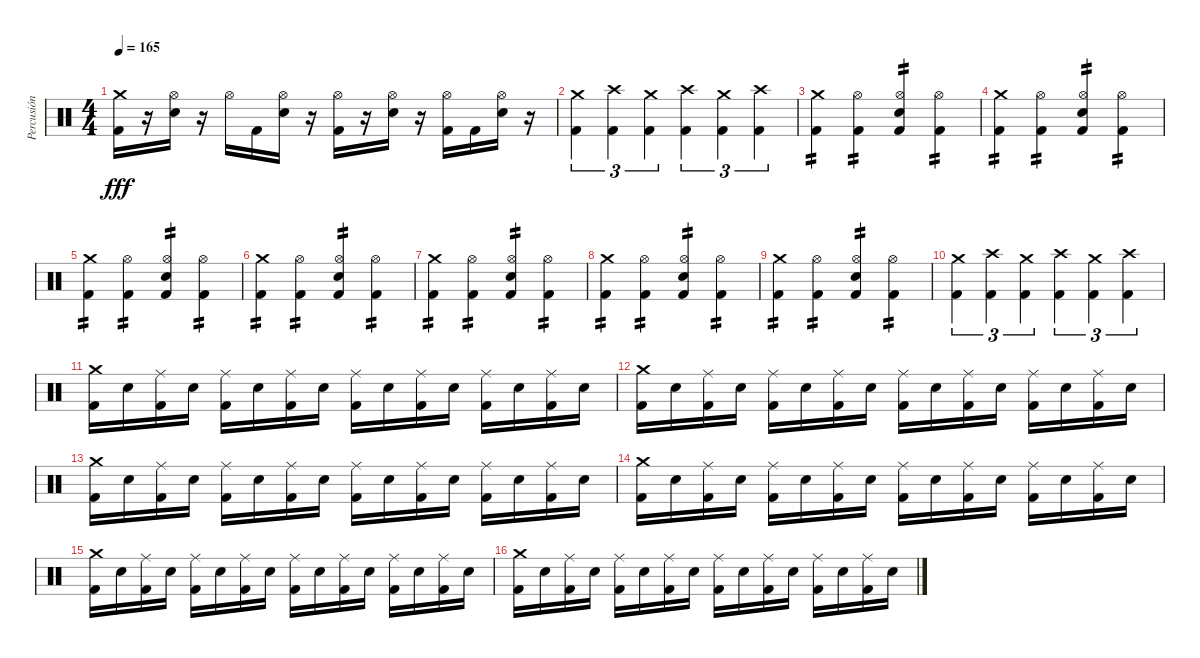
\track ("Percusión" "Percusión") {instrument percussion}
\staff {score}
\articulation defaults
\ts (4 4)
\tempo 165
\clef neutral
\ks c
("Crash medium (hit)" "Kick (hit) 2").16{dy fff} r.16 ("Hi-Hat (open)" "Electric Snare (hit)").16 r.16 "Hi-Hat (open)".16 "Kick (hit) 2".16 ("Hi-Hat (open)" "Electric Snare (hit)").16 r.16 ("Hi-Hat (open)" "Kick (hit) 2").16 r.16 ("Hi-Hat (open)" "Electric Snare (hit)").16 r.16 ("Hi-Hat (open)" "Kick (hit) 2").16 "Kick (hit) 2".16 ("Hi-Hat (open)" "Electric Snare (hit)").16 r.16 |
("Crash medium (hit)" "Kick (hit) 2").4{tu (3 2)} ("Crash high (hit)" "Kick (hit) 2").4{tu (3 2)} ("Crash medium (hit)" "Kick (hit) 2").4{tu (3 2)} ("Crash high (hit)" "Kick (hit) 2").4{tu (3 2)} ("Crash medium (hit)" "Kick (hit) 2").4{tu (3 2)} ("Crash high (hit)" "Kick (hit) 2").4{tu (3 2)} |
("Crash medium (hit)" "Kick (hit) 2").4{tp 2} ("Hi-Hat (open)" "Kick (hit) 2").4{tp 2} ("Hi-Hat (open)" "Electric Snare (hit)" "Kick (hit) 2").4{tp 2} ("Hi-Hat (open)" "Kick (hit) 2").4{tp 2} |
("Crash medium (hit)" "Kick (hit) 2").4{tp 2} ("Hi-Hat (open)" "Kick (hit) 2").4{tp 2} ("Hi-Hat (open)" "Electric Snare (hit)" "Kick (hit) 2").4{tp 2} ("Hi-Hat (open)" "Kick (hit) 2").4{tp 2} |
("Crash medium (hit)" "Kick (hit) 2").4{tp 2} ("Hi-Hat (open)" "Kick (hit) 2").4{tp 2} ("Hi-Hat (open)" "Electric Snare (hit)" "Kick (hit) 2").4{tp 2} ("Hi-Hat (open)" "Kick (hit) 2").4{tp 2} |
("Crash medium (hit)" "Kick (hit) 2").4{tp 2} ("Hi-Hat (open)" "Kick (hit) 2").4{tp 2} ("Hi-Hat (open)" "Electric Snare (hit)" "Kick (hit) 2").4{tp 2} ("Hi-Hat (open)" "Kick (hit) 2").4{tp 2} |
("Crash medium (hit)" "Kick (hit) 2").4{tp 2} ("Hi-Hat (open)" "Kick (hit) 2").4{tp 2} ("Hi-Hat (open)" "Electric Snare (hit)" "Kick (hit) 2").4{tp 2} ("Hi-Hat (open)" "Kick (hit) 2").4{tp 2} |
("Crash medium (hit)" "Kick (hit) 2").4{tp 2} ("Hi-Hat (open)" "Kick (hit) 2").4{tp 2} ("Hi-Hat (open)" "Electric Snare (hit)" "Kick (hit) 2").4{tp 2} ("Hi-Hat (open)" "Kick (hit) 2").4{tp 2} |
("Crash medium (hit)" "Kick (hit) 2").4{tp 2} ("Hi-Hat (open)" "Kick (hit) 2").4{tp 2} ("Hi-Hat (open)" "Electric Snare (hit)" "Kick (hit) 2").4{tp 2} ("Hi-Hat (open)" "Kick (hit) 2").4{tp 2} |
("Crash medium (hit)" "Kick (hit) 2").4{tu (3 2)} ("Crash high (hit)" "Kick (hit) 2").4{tu (3 2)} ("Crash medium (hit)" "Kick (hit) 2").4{tu (3 2)} ("Crash high (hit)" "Kick (hit) 2").4{tu (3 2)} ("Crash medium (hit)" "Kick (hit) 2").4{tu (3 2)} ("Crash high (hit)" "Kick (hit) 2").4{tu (3 2)} |
("Crash medium (hit)" "Kick (hit) 2").16 "Electric Snare (hit)".16 ("Ride (middle)" "Kick (hit) 2").16 "Electric Snare (hit)".16 ("Ride (middle)" "Kick (hit) 2").16 "Electric Snare (hit)".16 ("Ride (middle)" "Kick (hit) 2").16 "Electric Snare (hit)".16 ("Ride (middle)" "Kick (hit) 2").16 "Electric Snare (hit)".16 ("Ride (middle)" "Kick (hit) 2").16 "Electric Snare (hit)".16 ("Ride (middle)" "Kick (hit) 2").16 "Electric Snare (hit)".16 ("Ride (middle)" "Kick (hit) 2").16 "Electric Snare (hit)".16 |
("Crash medium (hit)" "Kick (hit) 2").16 "Electric Snare (hit)".16 ("Ride (middle)" "Kick (hit) 2").16 "Electric Snare (hit)".16 ("Ride (middle)" "Kick (hit) 2").16 "Electric Snare (hit)".16 ("Ride (middle)" "Kick (hit) 2").16 "Electric Snare (hit)".16 ("Ride (middle)" "Kick (hit) 2").16 "Electric Snare (hit)".16 ("Ride (middle)" "Kick (hit) 2").16 "Electric Snare (hit)".16 ("Ride (middle)" "Kick (hit) 2").16 "Electric Snare (hit)".16 ("Ride (middle)" "Kick (hit) 2").16 "Electric Snare (hit)".16 |
("Crash medium (hit)" "Kick (hit) 2").16 "Electric Snare (hit)".16 ("Ride (middle)" "Kick (hit) 2").16 "Electric Snare (hit)".16 ("Ride (middle)" "Kick (hit) 2").16 "Electric Snare (hit)".16 ("Ride (middle)" "Kick (hit) 2").16 "Electric Snare (hit)".16 ("Ride (middle)" "Kick (hit) 2").16 "Electric Snare (hit)".16 ("Ride (middle)" "Kick (hit) 2").16 "Electric Snare (hit)".16 ("Ride (middle)" "Kick (hit) 2").16 "Electric Snare (hit)".16 ("Ride (middle)" "Kick (hit) 2").16 "Electric Snare (hit)".16 |
("Crash medium (hit)" "Kick (hit) 2").16 "Electric Snare (hit)".16 ("Ride (middle)" "Kick (hit) 2").16 "Electric Snare (hit)".16 ("Ride (middle)" "Kick (hit) 2").16 "Electric Snare (hit)".16 ("Ride (middle)" "Kick (hit) 2").16 "Electric Snare (hit)".16 ("Ride (middle)" "Kick (hit) 2").16 "Electric Snare (hit)".16 ("Ride (middle)" "Kick (hit) 2").16 "Electric Snare (hit)".16 ("Ride (middle)" "Kick (hit) 2").16 "Electric Snare (hit)".16 ("Ride (middle)" "Kick (hit) 2").16 "Electric Snare (hit)".16 |
("Crash medium (hit)" "Kick (hit) 2").16 "Electric Snare (hit)".16 ("Ride (middle)" "Kick (hit) 2").16 "Electric Snare (hit)".16 ("Ride (middle)" "Kick (hit) 2").16 "Electric Snare (hit)".16 ("Ride (middle)" "Kick (hit) 2").16 "Electric Snare (hit)".16 ("Ride (middle)" "Kick (hit) 2").16 "Electric Snare (hit)".16 ("Ride (middle)" "Kick (hit) 2").16 "Electric Snare (hit)".16 ("Ride (middle)" "Kick (hit) 2").16 "Electric Snare (hit)".16 ("Ride (middle)" "Kick (hit) 2").16 "Electric Snare (hit)".16 |
("Crash medium (hit)" "Kick (hit) 2").16 "Electric Snare (hit)".16 ("Ride (middle)" "Kick (hit) 2").16 "Electric Snare (hit)".16 ("Ride (middle)" "Kick (hit) 2").16 "Electric Snare (hit)".16 ("Ride (middle)" "Kick (hit) 2").16 "Electric Snare (hit)".16 ("Ride (middle)" "Kick (hit) 2").16 "Electric Snare (hit)".16 ("Ride (middle)" "Kick (hit) 2").16 "Electric Snare (hit)".16 ("Ride (middle)" "Kick (hit) 2").16 "Electric Snare (hit)".16 ("Ride (middle)" "Kick (hit) 2").16 "Electric Snare (hit)".16
